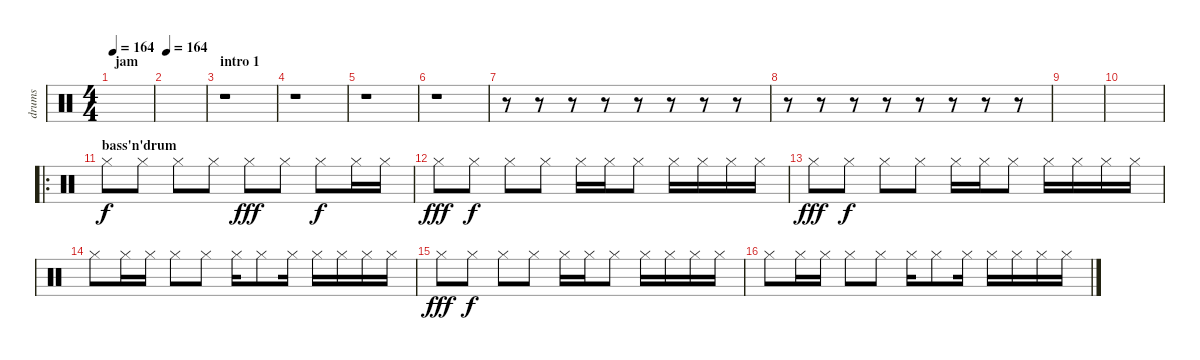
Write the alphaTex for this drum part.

\track ("drums" "drums") {instrument percussion}
\staff {score}
\articulation defaults
\ts (4 4)
\section ("" "jam")
\tempo 164
\tempo 172
\tempo 164
\clef neutral
\ks c
|
\tempo 164
|
\section ("" "intro 1")
r.1 |
r.1 |
r.1 |
r.1 |
r.8 r.8 r.8 r.8 r.8 r.8 r.8 r.8 |
r.8 r.8 r.8 r.8 r.8 r.8 r.8 r.8 |
|
|
\ro
\section ("" "bass'n'drum")
"Hi-Hat (closed)".8 "Hi-Hat (closed)".8{dy f} "Hi-Hat (closed)".8 "Hi-Hat (closed)".8 "Hi-Hat (closed)".8{dy fff} "Hi-Hat (closed)".8 "Hi-Hat (closed)".8{dy f} "Hi-Hat (closed)".16 "Hi-Hat (closed)".16 |
"Hi-Hat (closed)".8{dy fff} "Hi-Hat (closed)".8{dy f} "Hi-Hat (closed)".8 "Hi-Hat (closed)".8 "Hi-Hat (closed)".16 "Hi-Hat (closed)".16 "Hi-Hat (closed)".8 "Hi-Hat (closed)".16 "Hi-Hat (closed)".16 "Hi-Hat (closed)".16 "Hi-Hat (closed)".16 |
"Hi-Hat (closed)".8{dy fff} "Hi-Hat (closed)".8{dy f} "Hi-Hat (closed)".8 "Hi-Hat (closed)".8 "Hi-Hat (closed)".16 "Hi-Hat (closed)".16 "Hi-Hat (closed)".8 "Hi-Hat (closed)".16 "Hi-Hat (closed)".16 "Hi-Hat (closed)".16 "Hi-Hat (closed)".16 |
"Hi-Hat (closed)".8 "Hi-Hat (closed)".16 "Hi-Hat (closed)".16 "Hi-Hat (closed)".8 "Hi-Hat (closed)".8 "Hi-Hat (closed)".16 "Hi-Hat (closed)".8 "Hi-Hat (closed)".16 "Hi-Hat (closed)".16 "Hi-Hat (closed)".16 "Hi-Hat (closed)".16 "Hi-Hat (closed)".16 |
"Hi-Hat (closed)".8{dy fff} "Hi-Hat (closed)".8{dy f} "Hi-Hat (closed)".8 "Hi-Hat (closed)".8 "Hi-Hat (closed)".16 "Hi-Hat (closed)".16 "Hi-Hat (closed)".8 "Hi-Hat (closed)".16 "Hi-Hat (closed)".16 "Hi-Hat (closed)".16 "Hi-Hat (closed)".16 |
"Hi-Hat (closed)".8 "Hi-Hat (closed)".16 "Hi-Hat (closed)".16 "Hi-Hat (closed)".8 "Hi-Hat (closed)".8 "Hi-Hat (closed)".16 "Hi-Hat (closed)".8 "Hi-Hat (closed)".16 "Hi-Hat (closed)".16 "Hi-Hat (closed)".16 "Hi-Hat (closed)".16 "Hi-Hat (closed)".16
